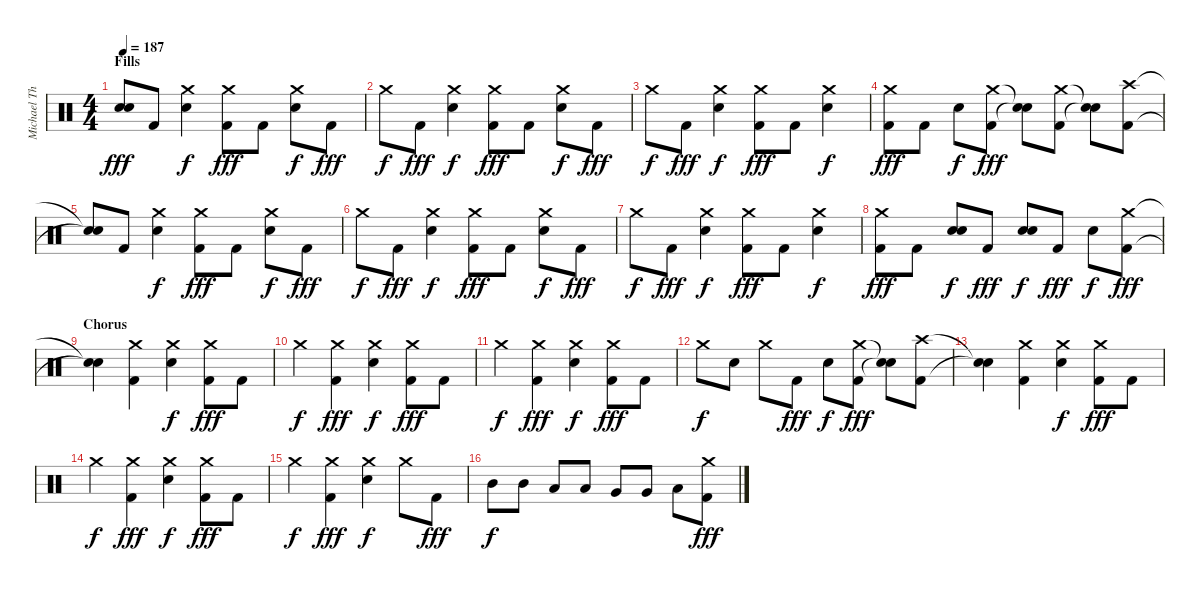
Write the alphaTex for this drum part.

\track ("Michael Thomas" "Michael Th") {instrument percussion}
\staff {score}
\articulation defaults
\ts (4 4)
\section ("" "Fills")
\tempo 187
\clef neutral
\ks c
("Snare (hit)"{t} "Snare (hit)"{t}).8{dy fff} "Kick (hit) 2".8 ("Crash medium (hit)" "Electric Snare (hit)").4{dy f} ("Crash medium (hit)" "Kick (hit) 2").8{dy fff} "Kick (hit) 2".8 ("Crash medium (hit)" "Electric Snare (hit)").8{dy f} "Kick (hit) 2".8{dy fff} |
"Crash medium (hit)".8{dy f} "Kick (hit) 2".8{dy fff} ("Crash medium (hit)" "Electric Snare (hit)").4{dy f} ("Crash medium (hit)" "Kick (hit) 2").8{dy fff} "Kick (hit) 2".8 ("Crash medium (hit)" "Electric Snare (hit)").8{dy f} "Kick (hit) 2".8{dy fff} |
"Crash medium (hit)".8{dy f} "Kick (hit) 2".8{dy fff} ("Crash medium (hit)" "Electric Snare (hit)").4{dy f} ("Crash medium (hit)" "Kick (hit) 2").8{dy fff} "Kick (hit) 2".8 ("Crash medium (hit)" "Electric Snare (hit)").4{dy f} |
("Crash medium (hit)" "Kick (hit) 2").8{dy fff} "Kick (hit) 2".8 "Electric Snare (hit)".8{dy f} ("Crash medium (hit)" "Kick (hit) 2").8{dy fff} ("Snare (hit)"{t} "Snare (hit)"{t}).8 ("Crash medium (hit)" "Kick (hit) 2").8 ("Snare (hit)"{t} "Snare (hit)"{t}).8 ("Crash high (hit)" "Kick (hit) 2").8 |
("Snare (hit)"{t} "Snare (hit)"{t}).8 "Kick (hit) 2".8 ("Crash medium (hit)" "Electric Snare (hit)").4{dy f} ("Crash medium (hit)" "Kick (hit) 2").8{dy fff} "Kick (hit) 2".8 ("Crash medium (hit)" "Electric Snare (hit)").8{dy f} "Kick (hit) 2".8{dy fff} |
"Crash medium (hit)".8{dy f} "Kick (hit) 2".8{dy fff} ("Crash medium (hit)" "Electric Snare (hit)").4{dy f} ("Crash medium (hit)" "Kick (hit) 2").8{dy fff} "Kick (hit) 2".8 ("Crash medium (hit)" "Electric Snare (hit)").8{dy f} "Kick (hit) 2".8{dy fff} |
"Crash medium (hit)".8{dy f} "Kick (hit) 2".8{dy fff} ("Crash medium (hit)" "Electric Snare (hit)").4{dy f} ("Crash medium (hit)" "Kick (hit) 2").8{dy fff} "Kick (hit) 2".8 ("Crash medium (hit)" "Electric Snare (hit)").4{dy f} |
("Crash medium (hit)" "Kick (hit) 2").8{dy fff} "Kick (hit) 2".8 ("Electric Snare (hit)" "Electric Snare (hit)").8{bd 120 dy f} "Kick (hit) 2".8{dy fff} ("Electric Snare (hit)" "Electric Snare (hit)").8{bd 120 dy f} "Kick (hit) 2".8{dy fff} "Electric Snare (hit)".8{dy f} ("Crash medium (hit)" "Kick (hit) 2").8{dy fff} |
\section ("" "Chorus")
("Snare (hit)"{t} "Snare (hit)"{t}).4 ("Crash medium (hit)" "Kick (hit) 2").4 ("Crash medium (hit)" "Electric Snare (hit)").4{dy f} ("Crash medium (hit)" "Kick (hit) 2").8{dy fff} "Kick (hit) 2".8 |
"Crash medium (hit)".4{dy f} ("Crash medium (hit)" "Kick (hit) 2").4{dy fff} ("Crash medium (hit)" "Electric Snare (hit)").4{dy f} ("Crash medium (hit)" "Kick (hit) 2").8{dy fff} "Kick (hit) 2".8 |
"Crash medium (hit)".4{dy f} ("Crash medium (hit)" "Kick (hit) 2").4{dy fff} ("Crash medium (hit)" "Electric Snare (hit)").4{dy f} ("Crash medium (hit)" "Kick (hit) 2").8{dy fff} "Kick (hit) 2".8 |
"Crash medium (hit)".8{dy f} "Electric Snare (hit)".8 "Crash medium (hit)".8 "Kick (hit) 2".8{dy fff} "Electric Snare (hit)".8{dy f} ("Crash medium (hit)" "Kick (hit) 2").8{dy fff} ("Snare (hit)"{t} "Snare (hit)"{t}).8 ("Crash high (hit)" "Kick (hit) 2").8 |
("Snare (hit)"{t} "Snare (hit)"{t}).4 ("Crash medium (hit)" "Kick (hit) 2").4 ("Crash medium (hit)" "Electric Snare (hit)").4{dy f} ("Crash medium (hit)" "Kick (hit) 2").8{dy fff} "Kick (hit) 2".8 |
"Crash medium (hit)".4{dy f} ("Crash medium (hit)" "Kick (hit) 2").4{dy fff} ("Crash medium (hit)" "Electric Snare (hit)").4{dy f} ("Crash medium (hit)" "Kick (hit) 2").8{dy fff} "Kick (hit) 2".8 |
"Crash medium (hit)".4{dy f} ("Crash medium (hit)" "Kick (hit) 2").4{dy fff} ("Crash medium (hit)" "Electric Snare (hit)").4{dy f} "Crash medium (hit)".8 "Kick (hit) 2".8{dy fff} |
"Mid Tom (hit)".8{dy f} "Mid Tom (hit)".8 "Low Tom (hit)".8 "Low Tom (hit)".8 "Very Low Tom (hit)".8 "Very Low Tom (hit)".8 "Low Floor Tom (hit)".8 ("Crash medium (hit)" "Kick (hit) 2").8{dy fff}
